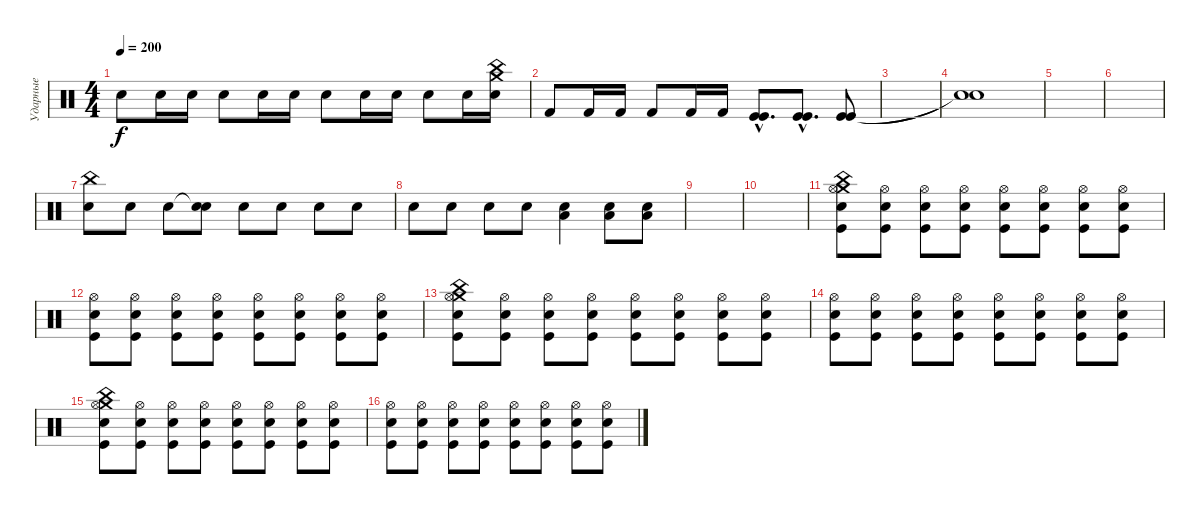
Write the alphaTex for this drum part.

\track ("Ударные" "Ударные") {instrument percussion}
\staff {score}
\articulation defaults
\ts (4 4)
\tempo 200
\clef neutral
\ks c "Snare (hit) 2".8{dy f} "Snare (hit) 2".16 "Snare (hit) 2".16 "Snare (hit) 2".8 "Snare (hit) 2".16 "Snare (hit) 2".16 "Snare (hit) 2".8 "Snare (hit) 2".16 "Snare (hit) 2".16 "Snare (hit) 2".8 "Snare (hit) 2".16
("Snare (hit) 2" "Crash medium (hit)" "China (hit)").16 |
"Kick (hit) 2".8 "Kick (hit) 2".16 "Kick (hit) 2".16 "Kick (hit) 2".8 "Kick (hit) 2".16 "Kick (hit) 2".16 ("Kick (hit)"{hac} "Kick (hit)"{hac}).8{d} ("Kick (hit)"{hac} "Kick (hit)"{hac}).8{d} ("Kick (hit)" "Kick (hit)").8 |
|
("Snare (hit)"{t} "Snare (hit)"{t}).1 |
|
|
("China (hit)" "Snare (hit) 2").8 "Snare (hit) 2".8 "Snare (hit) 2".8 ("Snare (hit)"{t} "Snare (hit) 2").8 "Snare (hit) 2".8 "Snare (hit) 2".8 "Snare (hit) 2".8 "Snare (hit) 2".8 |
"Snare (hit) 2".8 "Snare (hit) 2".8 "Snare (hit) 2".8 "Snare (hit) 2".8 ("Electric Snare (hit)" "Low Floor Tom (hit)").4 ("Electric Snare (hit)" "Low Floor Tom (hit)").8 ("Electric Snare (hit)" "Low Floor Tom (hit)").8 |
|
|
("Electric Snare (hit)" "China (hit)" "Crash medium (hit)" "Hi-Hat (open)" "Kick (hit)").8 ("Electric Snare (hit)" "Hi-Hat (open)" "Kick (hit)").8 ("Electric Snare (hit)" "Hi-Hat (open)" "Kick (hit)").8 ("Electric Snare (hit)" "Hi-Hat (open)" "Kick (hit)").8 ("Electric Snare (hit)" "Hi-Hat (open)" "Kick (hit)").8 ("Electric Snare (hit)" "Hi-Hat (open)" "Kick (hit)").8 ("Electric Snare (hit)" "Hi-Hat (open)" "Kick (hit)").8 ("Electric Snare (hit)" "Hi-Hat (open)" "Kick (hit)").8 |
("Electric Snare (hit)" "Hi-Hat (open)" "Kick (hit)").8 ("Electric Snare (hit)" "Hi-Hat (open)" "Kick (hit)").8 ("Electric Snare (hit)" "Hi-Hat (open)" "Kick (hit)").8 ("Electric Snare (hit)" "Hi-Hat (open)" "Kick (hit)").8 ("Electric Snare (hit)" "Hi-Hat (open)" "Kick (hit)").8 ("Electric Snare (hit)" "Hi-Hat (open)" "Kick (hit)").8 ("Electric Snare (hit)" "Hi-Hat (open)" "Kick (hit)").8 ("Electric Snare (hit)" "Hi-Hat (open)" "Kick (hit)").8 |
("Electric Snare (hit)" "China (hit)" "Crash medium (hit)" "Hi-Hat (open)" "Kick (hit)").8 ("Electric Snare (hit)" "Hi-Hat (open)" "Kick (hit)").8 ("Electric Snare (hit)" "Hi-Hat (open)" "Kick (hit)").8 ("Electric Snare (hit)" "Hi-Hat (open)" "Kick (hit)").8 ("Electric Snare (hit)" "Hi-Hat (open)" "Kick (hit)").8 ("Electric Snare (hit)" "Hi-Hat (open)" "Kick (hit)").8 ("Electric Snare (hit)" "Hi-Hat (open)" "Kick (hit)").8 ("Electric Snare (hit)" "Hi-Hat (open)" "Kick (hit)").8 |
("Electric Snare (hit)" "Hi-Hat (open)" "Kick (hit)").8 ("Electric Snare (hit)" "Hi-Hat (open)" "Kick (hit)").8 ("Electric Snare (hit)" "Hi-Hat (open)" "Kick (hit)").8 ("Electric Snare (hit)" "Hi-Hat (open)" "Kick (hit)").8 ("Electric Snare (hit)" "Hi-Hat (open)" "Kick (hit)").8 ("Electric Snare (hit)" "Hi-Hat (open)" "Kick (hit)").8 ("Electric Snare (hit)" "Hi-Hat (open)" "Kick (hit)").8 ("Electric Snare (hit)" "Hi-Hat (open)" "Kick (hit)").8 |
("Electric Snare (hit)" "China (hit)" "Crash medium (hit)" "Hi-Hat (open)" "Kick (hit)").8 ("Electric Snare (hit)" "Hi-Hat (open)" "Kick (hit)").8 ("Electric Snare (hit)" "Hi-Hat (open)" "Kick (hit)").8 ("Electric Snare (hit)" "Hi-Hat (open)" "Kick (hit)").8 ("Electric Snare (hit)" "Hi-Hat (open)" "Kick (hit)").8 ("Electric Snare (hit)" "Hi-Hat (open)" "Kick (hit)").8 ("Electric Snare (hit)" "Hi-Hat (open)" "Kick (hit)").8 ("Electric Snare (hit)" "Hi-Hat (open)" "Kick (hit)").8 |
("Electric Snare (hit)" "Hi-Hat (open)" "Kick (hit)").8 ("Electric Snare (hit)" "Hi-Hat (open)" "Kick (hit)").8 ("Electric Snare (hit)" "Hi-Hat (open)" "Kick (hit)").8 ("Electric Snare (hit)" "Hi-Hat (open)" "Kick (hit)").8 ("Electric Snare (hit)" "Hi-Hat (open)" "Kick (hit)").8 ("Electric Snare (hit)" "Hi-Hat (open)" "Kick (hit)").8 ("Electric Snare (hit)" "Hi-Hat (open)" "Kick (hit)").8 ("Electric Snare (hit)" "Hi-Hat (open)" "Kick (hit)").8
